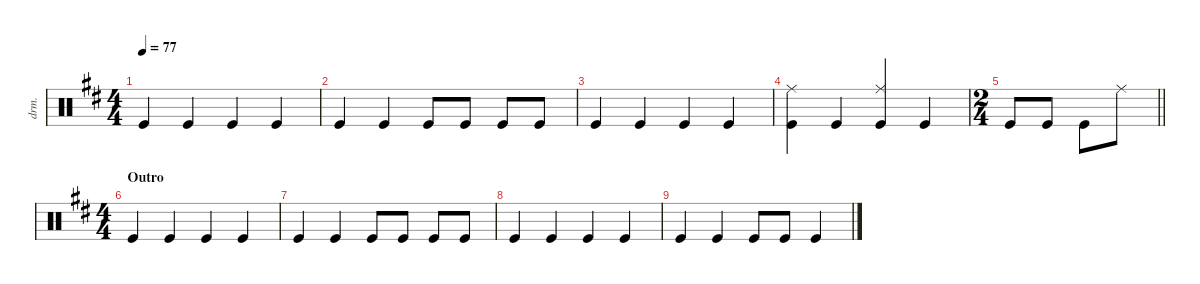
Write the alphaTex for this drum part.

\defaultSystemsLayout 4
\hideDynamics
\bracketExtendMode nobrackets
\otherSystemsTrackNameOrientation horizontal
\track ("Drums" "drm.") {defaultSystemsLayout 8 instrument percussion}
\staff {score}
\articulation defaults
\ts (4 4)
\tempo 77
\clef neutral
\ks bminor "Kick (hit)"{acc forcenatural}.4{dy mf beam Up} "Kick (hit)"{acc forcenatural}.4{beam Up} "Kick (hit)"{acc forcenatural}.4{beam Up} "Kick (hit)"{acc forcenatural}.4{beam Up}
|
"Kick (hit)"{acc forcenatural}.4{beam Up} "Kick (hit)"{acc forcenatural}.4{beam Up} "Kick (hit)"{acc forcenatural}.8{beam Up} "Kick (hit)"{acc forcenatural}.8{beam Up} "Kick (hit)"{acc forcenatural}.8{beam Up} "Kick (hit)"{acc forcenatural}.8{beam Up} |
"Kick (hit)"{acc forcenatural}.4{beam Up} "Kick (hit)"{acc forcenatural}.4{beam Up} "Kick (hit)"{acc forcenatural}.4{beam Up} "Kick (hit)"{acc forcenatural}.4{beam Up} |
("Kick (hit)"{acc forcenatural} "Ride (middle)"{acc forcenatural}).4{beam Down} "Kick (hit)"{acc forcenatural}.4{beam Up} ("Kick (hit)"{acc forcenatural} "Ride (middle)"{acc forcenatural}).4{beam Up} "Kick (hit)"{acc forcenatural}.4{beam Up} |
\ts (2 4)
\beaming (8 2 2)
\barLineRight lightlight "Kick (hit)"{acc forcenatural}.8{beam Up} "Kick (hit)"{acc forcenatural}.8{beam Up} "Kick (hit)"{acc forcenatural}.8{beam Down} "Ride (middle)"{acc forcenatural}.8{beam Down}
|
\ts (4 4)
\section ("" "Outro")
"Kick (hit)"{acc forcenatural}.4{beam Up} "Kick (hit)"{acc forcenatural}.4{beam Up} "Kick (hit)"{acc forcenatural}.4{beam Up} "Kick (hit)"{acc forcenatural}.4{beam Up} |
"Kick (hit)"{acc forcenatural}.4{beam Up} "Kick (hit)"{acc forcenatural}.4{beam Up} "Kick (hit)"{acc forcenatural}.8{beam Up} "Kick (hit)"{acc forcenatural}.8{beam Up} "Kick (hit)"{acc forcenatural}.8{beam Up} "Kick (hit)"{acc forcenatural}.8{beam Up} |
"Kick (hit)"{acc forcenatural}.4{beam Up} "Kick (hit)"{acc forcenatural}.4{beam Up} "Kick (hit)"{acc forcenatural}.4{beam Up} "Kick (hit)"{acc forcenatural}.4{beam Up} |
"Kick (hit)"{acc forcenatural}.4{beam Up} "Kick (hit)"{acc forcenatural}.4{beam Up} "Kick (hit)"{acc forcenatural}.8{beam Up} "Kick (hit)"{acc forcenatural}.8{beam Up} "Kick (hit)"{acc forcenatural}.4{beam Up}
